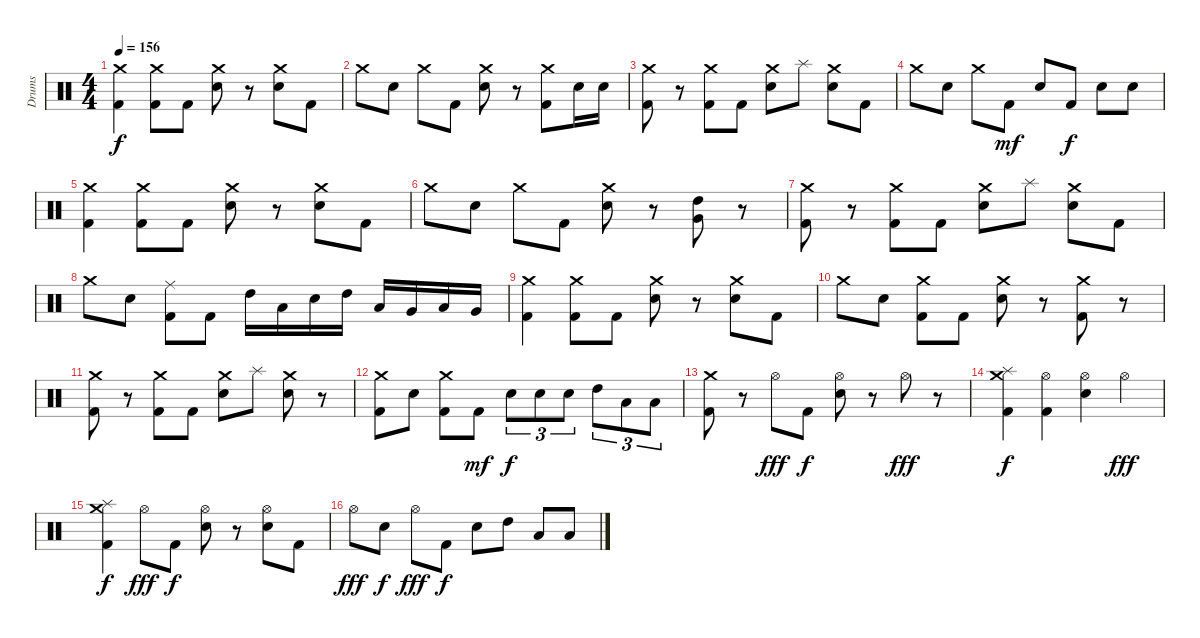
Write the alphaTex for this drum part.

\track ("Drums" "Drums") {instrument percussion}
\staff {score}
\articulation defaults
\ts (4 4)
\tempo 156
\clef neutral
\ks c
("Crash medium (hit)" "Kick (hit) 2").4{dy f} ("Crash medium (hit)" "Kick (hit) 2").8 "Kick (hit) 2".8 ("Crash medium (hit)" "Electric Snare (hit)").8 r.8 ("Crash medium (hit)" "Electric Snare (hit)").8 "Kick (hit) 2".8 |
"Crash medium (hit)".8 "Electric Snare (hit)".8 "Crash medium (hit)".8 "Kick (hit) 2".8 ("Crash medium (hit)" "Electric Snare (hit)").8 r.8 ("Crash medium (hit)" "Kick (hit) 2").8 "Electric Snare (hit)".16 "Electric Snare (hit)".16 |
("Crash medium (hit)" "Kick (hit) 2").8 r.8 ("Crash medium (hit)" "Kick (hit) 2").8 "Kick (hit) 2".8 ("Crash medium (hit)" "Electric Snare (hit)").8 "Splash (hit)".8 ("Crash medium (hit)" "Electric Snare (hit)").8 "Kick (hit) 2".8 |
"Crash medium (hit)".8 "Electric Snare (hit)".8 "Crash medium (hit)".8 "Kick (hit) 2".8{dy mf} "Electric Snare (hit)".8 "Kick (hit) 2".8{dy f} "Electric Snare (hit)".8 "Electric Snare (hit)".8 |
("Crash medium (hit)" "Kick (hit) 2").4 ("Crash medium (hit)" "Kick (hit) 2").8 "Kick (hit) 2".8 ("Crash medium (hit)" "Electric Snare (hit)").8 r.8 ("Crash medium (hit)" "Electric Snare (hit)").8 "Kick (hit) 2".8 |
"Crash medium (hit)".8 "Electric Snare (hit)".8 "Crash medium (hit)".8 "Kick (hit) 2".8 ("Crash medium (hit)" "Electric Snare (hit)").8 r.8 ("Very Low Tom (hit)" "High Tom (hit)").8 r.8 |
("Crash medium (hit)" "Kick (hit) 2").8 r.8 ("Crash medium (hit)" "Kick (hit) 2").8 "Kick (hit) 2".8 ("Crash medium (hit)" "Electric Snare (hit)").8 "Splash (hit)".8 ("Crash medium (hit)" "Electric Snare (hit)").8 "Kick (hit) 2".8 |
"Crash medium (hit)".8 "Electric Snare (hit)".8 ("Ride (middle)" "Kick (hit) 2").8 "Kick (hit) 2".8 "High Tom (hit)".16 "Low Tom (hit)".16 "Electric Snare (hit)".16 "High Tom (hit)".16 "Low Tom (hit)".16 "Very Low Tom (hit)".16 "Low Tom (hit)".16 "Very Low Tom (hit)".16 |
("Crash medium (hit)" "Kick (hit) 2").4 ("Crash medium (hit)" "Kick (hit) 2").8 "Kick (hit) 2".8 ("Crash medium (hit)" "Electric Snare (hit)").8 r.8 ("Crash medium (hit)" "Electric Snare (hit)").8 "Kick (hit) 2".8 |
"Crash medium (hit)".8 "Electric Snare (hit)".8 ("Crash medium (hit)" "Kick (hit) 2").8 "Kick (hit) 2".8 ("Crash medium (hit)" "Electric Snare (hit)").8 r.8 ("Crash medium (hit)" "Kick (hit) 2").8 r.8 |
("Crash medium (hit)" "Kick (hit) 2").8 r.8 ("Crash medium (hit)" "Kick (hit) 2").8 "Kick (hit) 2".8 ("Crash medium (hit)" "Electric Snare (hit)").8 "Splash (hit)".8 ("Crash medium (hit)" "Electric Snare (hit)").8 r.8 |
("Crash medium (hit)" "Kick (hit) 2").8 "Electric Snare (hit)".8 ("Crash medium (hit)" "Kick (hit) 2").8 "Kick (hit) 2".8{dy mf} "Electric Snare (hit)".8{tu (3 2) dy f} "Electric Snare (hit)".8{tu (3 2)} "Electric Snare (hit)".8{tu (3 2)} "High Tom (hit)".8{tu (3 2)} "Low Tom (hit)".8{tu (3 2)} "Low Tom (hit)".8{tu (3 2)} |
("Crash medium (hit)" "Kick (hit) 2").8 r.8 "Hi-Hat (open)".8{dy fff} "Kick (hit) 2".8{dy f} ("Hi-Hat (open)" "Electric Snare (hit)").8 r.8 "Hi-Hat (open)".8{dy fff} r.8 |
("Crash medium (hit)" "Splash (hit)" "Kick (hit) 2").4{dy f} ("Hi-Hat (open)" "Kick (hit) 2").4 ("Hi-Hat (open)" "Electric Snare (hit)").4 "Hi-Hat (open)".4{dy fff} |
("Crash medium (hit)" "Splash (hit)" "Kick (hit) 2").4{dy f} "Hi-Hat (open)".8{dy fff} "Kick (hit) 2".8{dy f} ("Hi-Hat (open)" "Electric Snare (hit)").8 r.8 ("Hi-Hat (open)" "Electric Snare (hit)").8 "Kick (hit) 2".8 |
"Hi-Hat (open)".8{dy fff} "Electric Snare (hit)".8{dy f} "Hi-Hat (open)".8{dy fff} "Kick (hit) 2".8{dy f} "Electric Snare (hit)".8 "High Tom (hit)".8 "Low Tom (hit)".8 "Low Tom (hit)".8
